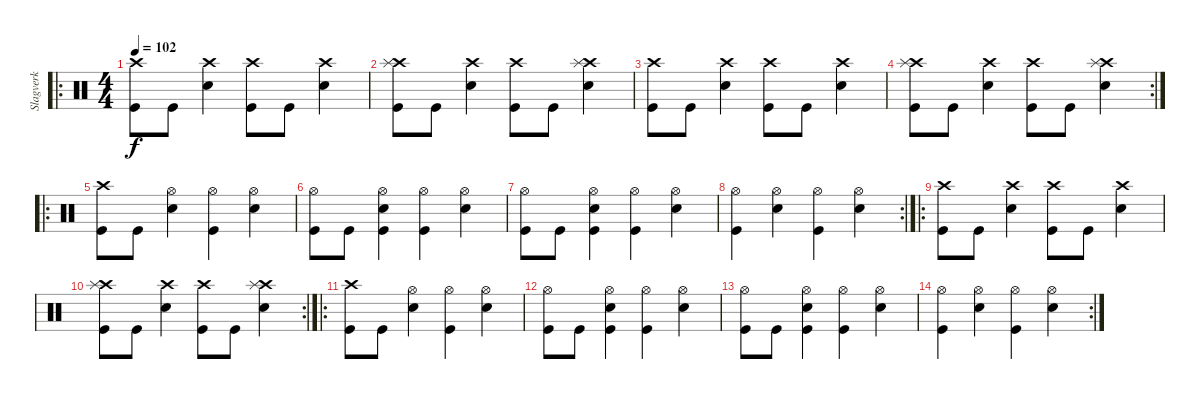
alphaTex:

\track ("Slagverk" "Slagverk") {instrument percussion}
\staff {score}
\articulation defaults
\ro
\ts (4 4)
\tempo 102
\clef neutral
\ks c
("Crash high (hit)" "Kick (hit)").8{dy f} "Kick (hit)".8 ("Crash high (hit)" "Snare (hit) 2").4 ("Crash high (hit)" "Kick (hit)").8 "Kick (hit)".8 ("Crash high (hit)" "Snare (hit) 2").4 |
("Crash high (hit)" "Splash (hit)" "Kick (hit)").8 "Kick (hit)".8 ("Crash high (hit)" "Snare (hit) 2").4 ("Crash high (hit)" "Kick (hit)").8 "Kick (hit)".8 ("Crash high (hit)" "Splash (hit)" "Snare (hit) 2").4 |
("Crash high (hit)" "Kick (hit)").8 "Kick (hit)".8 ("Crash high (hit)" "Snare (hit) 2").4 ("Crash high (hit)" "Kick (hit)").8 "Kick (hit)".8 ("Crash high (hit)" "Snare (hit) 2").4 |
\rc 2
("Crash high (hit)" "Splash (hit)" "Kick (hit)").8 "Kick (hit)".8 ("Crash high (hit)" "Snare (hit) 2").4 ("Crash high (hit)" "Kick (hit)").8 "Kick (hit)".8 ("Crash high (hit)" "Splash (hit)" "Snare (hit) 2").4 |
\ro
("Crash high (hit)" "Kick (hit)").8 "Kick (hit)".8 ("Hi-Hat (open)" "Snare (hit) 2").4 ("Hi-Hat (open)" "Kick (hit)").4 ("Hi-Hat (open)" "Snare (hit) 2").4 |
("Hi-Hat (open)" "Kick (hit)").8 "Kick (hit)".8 ("Hi-Hat (open)" "Snare (hit) 2" "Kick (hit)").4 ("Hi-Hat (open)" "Kick (hit)").4 ("Hi-Hat (open)" "Snare (hit) 2").4 |
("Hi-Hat (open)" "Kick (hit)").8 "Kick (hit)".8 ("Hi-Hat (open)" "Snare (hit) 2" "Kick (hit)").4 ("Hi-Hat (open)" "Kick (hit)").4 ("Hi-Hat (open)" "Snare (hit) 2").4 |
\rc 2
("Hi-Hat (open)" "Kick (hit)").4 ("Hi-Hat (open)" "Snare (hit) 2").4 ("Hi-Hat (open)" "Kick (hit)").4 ("Hi-Hat (open)" "Snare (hit) 2").4 |
\ro
("Crash high (hit)" "Kick (hit)").8 "Kick (hit)".8 ("Crash high (hit)" "Snare (hit) 2").4 ("Crash high (hit)" "Kick (hit)").8 "Kick (hit)".8 ("Crash high (hit)" "Snare (hit) 2").4 |
\rc 2
("Crash high (hit)" "Splash (hit)" "Kick (hit)").8 "Kick (hit)".8 ("Crash high (hit)" "Snare (hit) 2").4 ("Crash high (hit)" "Kick (hit)").8 "Kick (hit)".8 ("Crash high (hit)" "Splash (hit)" "Snare (hit) 2").4 |
\ro
("Crash high (hit)" "Kick (hit)").8 "Kick (hit)".8 ("Hi-Hat (open)" "Snare (hit) 2").4 ("Hi-Hat (open)" "Kick (hit)").4 ("Hi-Hat (open)" "Snare (hit) 2").4 |
("Hi-Hat (open)" "Kick (hit)").8 "Kick (hit)".8 ("Hi-Hat (open)" "Snare (hit) 2" "Kick (hit)").4 ("Hi-Hat (open)" "Kick (hit)").4 ("Hi-Hat (open)" "Snare (hit) 2").4 |
("Hi-Hat (open)" "Kick (hit)").8 "Kick (hit)".8 ("Hi-Hat (open)" "Snare (hit) 2" "Kick (hit)").4 ("Hi-Hat (open)" "Kick (hit)").4 ("Hi-Hat (open)" "Snare (hit) 2").4 |
\rc 2
("Hi-Hat (open)" "Kick (hit)").4 ("Hi-Hat (open)" "Snare (hit) 2").4 ("Hi-Hat (open)" "Kick (hit)").4 ("Hi-Hat (open)" "Snare (hit) 2").4
